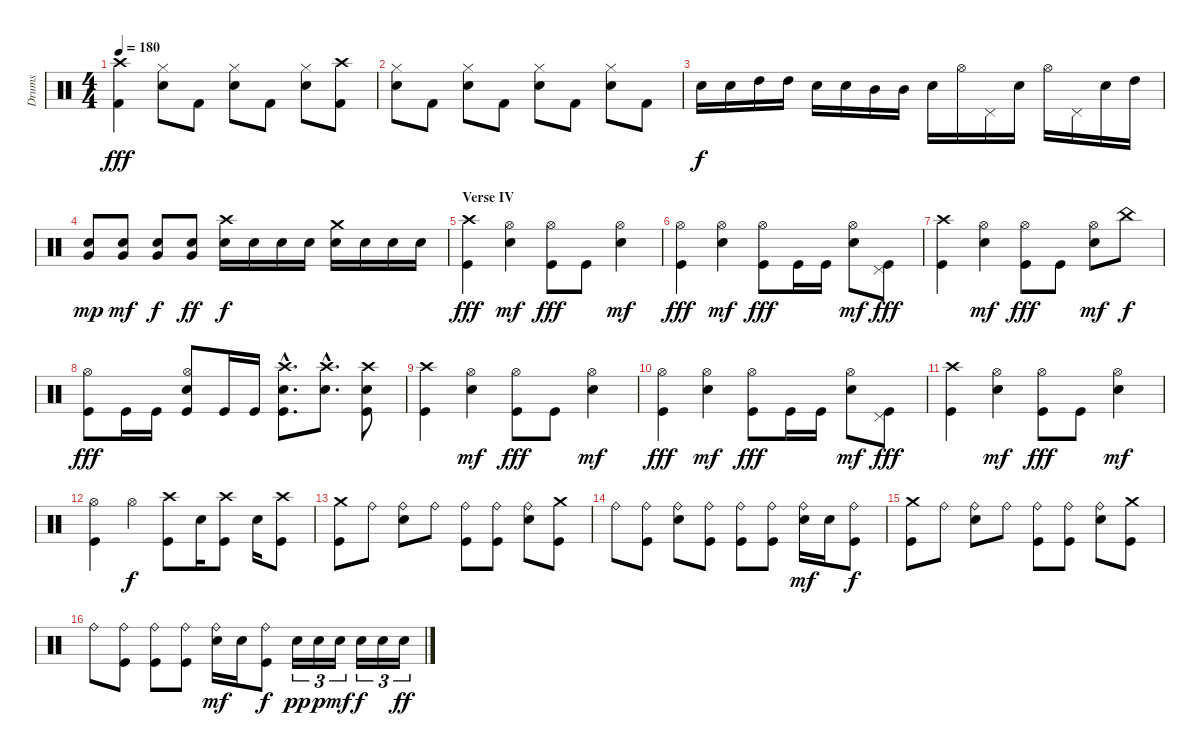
\track ("Drums" "Drums") {instrument percussion}
\staff {score}
\articulation defaults
\ts (4 4)
\tempo 180
\clef neutral
\ks c
("Crash high (hit)" "Kick (hit) 2").4{dy fff} ("Hi-Hat (closed)" "Electric Snare (hit)").8 "Kick (hit) 2".8 ("Hi-Hat (closed)" "Electric Snare (hit)").8 "Kick (hit) 2".8 ("Hi-Hat (closed)" "Electric Snare (hit)").8 ("Crash high (hit)" "Kick (hit) 2").8 |
("Hi-Hat (closed)" "Electric Snare (hit)").8 "Kick (hit) 2".8 ("Hi-Hat (closed)" "Electric Snare (hit)").8 "Kick (hit) 2".8 ("Hi-Hat (closed)" "Electric Snare (hit)").8 "Kick (hit) 2".8 ("Hi-Hat (closed)" "Electric Snare (hit)").8 "Kick (hit) 2".8 |
"Electric Snare (hit)".16{dy f} "Electric Snare (hit)".16 "High Tom (hit)".16 "High Tom (hit)".16 "Electric Snare (hit)".16 "Electric Snare (hit)".16 "Mid Tom (hit)".16 "Mid Tom (hit)".16 "Electric Snare (hit)".16 "Hi-Hat (open)".16 "Pedal Hi-Hat (hit)".16 "Electric Snare (hit)".16 "Hi-Hat (open)".16 "Pedal Hi-Hat (hit)".16 "Electric Snare (hit)".16 "High Tom (hit)".16 |
("Electric Snare (hit)" "Very Low Tom (hit)").8{dy mp} ("Electric Snare (hit)" "Very Low Tom (hit)").8{dy mf} ("Electric Snare (hit)" "Very Low Tom (hit)").8{dy f} ("Electric Snare (hit)" "Very Low Tom (hit)").8{dy ff} ("Electric Snare (hit)" "Crash high (hit)").16{dy f} "Electric Snare (hit)".16 "Electric Snare (hit)".16 "Electric Snare (hit)".16 ("Electric Snare (hit)" "Crash medium (hit)").16 "Electric Snare (hit)".16 "Electric Snare (hit)".16 "Electric Snare (hit)".16 |
\section ("" "Verse IV")
("Crash high (hit)" "Kick (hit)").4{dy fff} ("Hi-Hat (open)" "Electric Snare (hit)").4{dy mf} ("Hi-Hat (open)" "Kick (hit)").8{dy fff} "Kick (hit)".8 ("Hi-Hat (open)" "Electric Snare (hit)").4{dy mf} |
("Hi-Hat (open)" "Kick (hit)").4{dy fff} ("Hi-Hat (open)" "Electric Snare (hit)").4{dy mf} ("Hi-Hat (open)" "Kick (hit)").8{dy fff} "Kick (hit)".16 "Kick (hit)".16 ("Hi-Hat (open)" "Electric Snare (hit)").8{dy mf} ("Pedal Hi-Hat (hit)" "Kick (hit)").8{dy fff} |
("Crash high (hit)" "Kick (hit)").4 ("Hi-Hat (open)" "Electric Snare (hit)").4{dy mf} ("Hi-Hat (open)" "Kick (hit)").8{dy fff} "Kick (hit)".8 ("Hi-Hat (open)" "Electric Snare (hit)").8{dy mf} "China (hit)".8{dy f} |
("Hi-Hat (open)" "Kick (hit)").8{dy fff} "Kick (hit)".16 "Kick (hit)".16 ("Hi-Hat (open)" "Electric Snare (hit)" "Kick (hit)").8 "Kick (hit)".16 "Kick (hit)".16 ("Crash high (hit)"{hac} "Electric Snare (hit)"{hac} "Kick (hit)"{hac}).8{d} ("Crash high (hit)"{hac} "Electric Snare (hit)"{hac}).8{d} ("Crash high (hit)" "Electric Snare (hit)" "Kick (hit)").8 |
("Crash high (hit)" "Kick (hit)").4 ("Hi-Hat (open)" "Electric Snare (hit)").4{dy mf} ("Hi-Hat (open)" "Kick (hit)").8{dy fff} "Kick (hit)".8 ("Hi-Hat (open)" "Electric Snare (hit)").4{dy mf} |
("Hi-Hat (open)" "Kick (hit)").4{dy fff} ("Hi-Hat (open)" "Electric Snare (hit)").4{dy mf} ("Hi-Hat (open)" "Kick (hit)").8{dy fff} "Kick (hit)".16 "Kick (hit)".16 ("Hi-Hat (open)" "Electric Snare (hit)").8{dy mf} ("Pedal Hi-Hat (hit)" "Kick (hit)").8{dy fff} |
("Crash high (hit)" "Kick (hit)").4 ("Hi-Hat (open)" "Electric Snare (hit)").4{dy mf} ("Hi-Hat (open)" "Kick (hit)").8{dy fff} "Kick (hit)".8 ("Hi-Hat (open)" "Electric Snare (hit)").4{dy mf} |
("Hi-Hat (open)" "Kick (hit)").4 "Hi-Hat (open)".4{dy f} ("Crash high (hit)" "Kick (hit)").8 "Electric Snare (hit)".16 ("Crash high (hit)" "Kick (hit)").8 "Electric Snare (hit)".16 ("Crash high (hit)" "Kick (hit)").8 |
("Crash medium (hit)" "Kick (hit)").8 "Ride (bell)".8 ("Ride (bell)" "Electric Snare (hit)").8 "Ride (bell)".8 ("Ride (bell)" "Kick (hit)").8 ("Ride (bell)" "Kick (hit)").8 ("Ride (bell)" "Electric Snare (hit)").8 ("Crash medium (hit)" "Kick (hit)").8 |
"Ride (bell)".8 ("Ride (bell)" "Kick (hit)").8 ("Ride (bell)" "Electric Snare (hit)").8 ("Ride (bell)" "Kick (hit)").8 ("Ride (bell)" "Kick (hit)").8 ("Ride (bell)" "Kick (hit)").8 ("Ride (bell)" "Electric Snare (hit)").16{dy mf} "Electric Snare (hit)".16 ("Ride (bell)" "Kick (hit)").8{dy f} |
("Crash medium (hit)" "Kick (hit)").8 "Ride (bell)".8 ("Ride (bell)" "Electric Snare (hit)").8 "Ride (bell)".8 ("Ride (bell)" "Kick (hit)").8 ("Ride (bell)" "Kick (hit)").8 ("Ride (bell)" "Electric Snare (hit)").8 ("Crash medium (hit)" "Kick (hit)").8 |
"Ride (bell)".8 ("Ride (bell)" "Kick (hit)").8 ("Ride (bell)" "Kick (hit)").8 ("Ride (bell)" "Kick (hit)").8 ("Ride (bell)" "Electric Snare (hit)").16{dy mf} "Electric Snare (hit)".16 ("Ride (bell)" "Kick (hit)").8{dy f} "Electric Snare (hit)".16{tu (3 2) dy pp} "Electric Snare (hit)".16{tu (3 2) dy p} "Electric Snare (hit)".16{tu (3 2) dy mf} "Electric Snare (hit)".16{tu (3 2) dy f} "Electric Snare (hit)".16{tu (3 2)} "Electric Snare (hit)".16{tu (3 2) dy ff}
